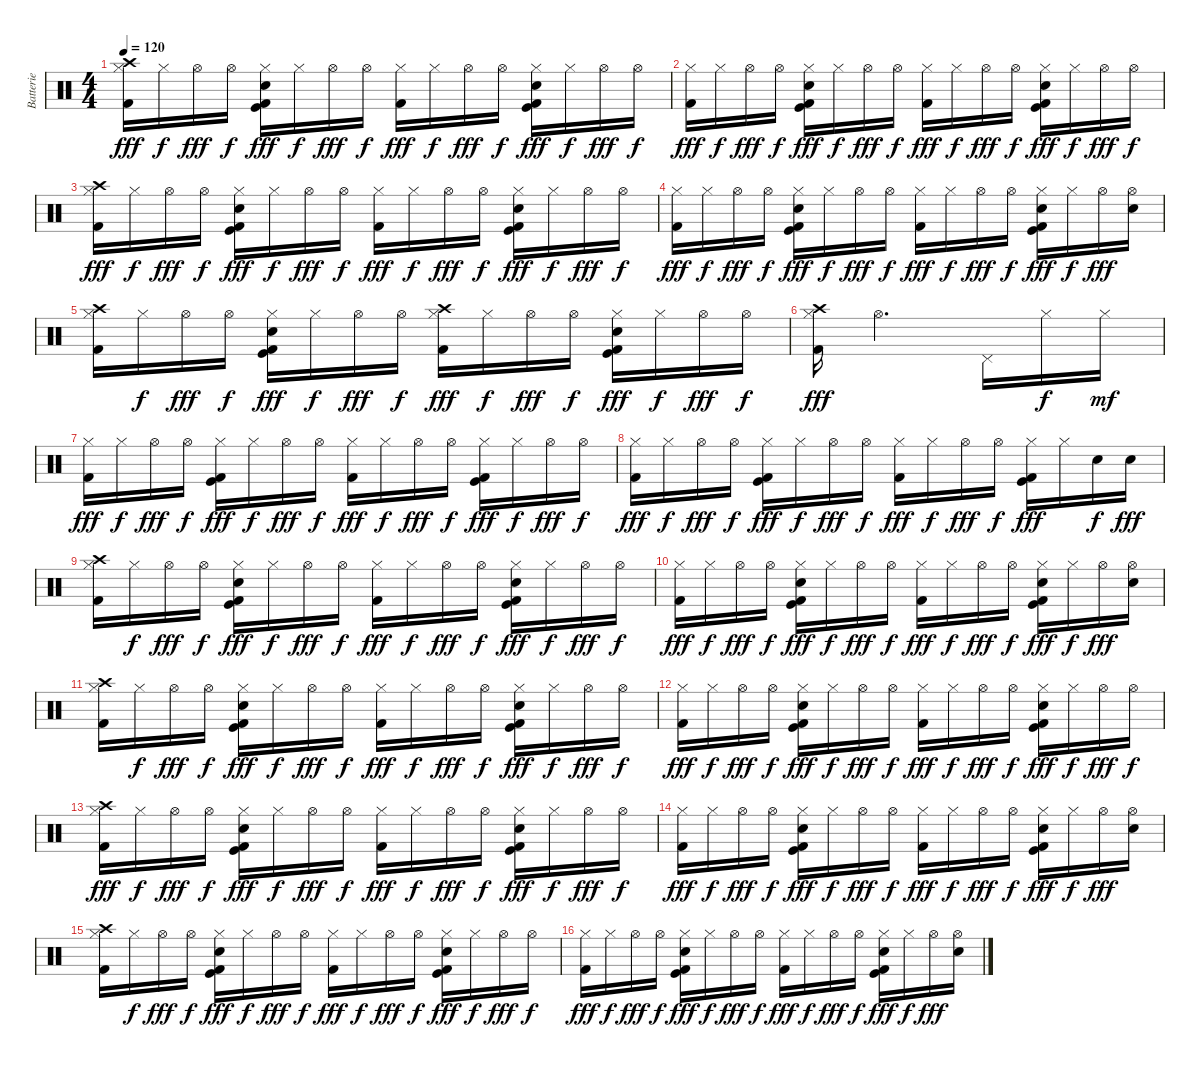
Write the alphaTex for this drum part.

\track ("Batterie" "Batterie") {instrument percussion}
\staff {score}
\articulation defaults
\ts (4 4)
\tempo 120
\clef neutral
\ks c
("Hi-Hat (closed)" "Crash high (hit)" "Kick (hit) 2").16{dy fff} "Hi-Hat (closed)".16{dy f} "Hi-Hat (open)".16{dy fff} "Hi-Hat (open)".16{dy f} ("Hi-Hat (closed)" "Electric Snare (hit)" "Kick (hit)" "Kick (hit) 2").16{dy fff} "Hi-Hat (closed)".16{dy f} "Hi-Hat (open)".16{dy fff} "Hi-Hat (open)".16{dy f} ("Hi-Hat (closed)" "Kick (hit) 2").16{dy fff} "Hi-Hat (closed)".16{dy f} "Hi-Hat (open)".16{dy fff} "Hi-Hat (open)".16{dy f} ("Hi-Hat (closed)" "Electric Snare (hit)" "Kick (hit)" "Kick (hit) 2").16{dy fff} "Hi-Hat (closed)".16{dy f} "Hi-Hat (open)".16{dy fff} "Hi-Hat (open)".16{dy f} |
("Hi-Hat (closed)" "Kick (hit) 2").16{dy fff} "Hi-Hat (closed)".16{dy f} "Hi-Hat (open)".16{dy fff} "Hi-Hat (open)".16{dy f} ("Hi-Hat (closed)" "Electric Snare (hit)" "Kick (hit) 2" "Kick (hit)").16{dy fff} "Hi-Hat (closed)".16{dy f} "Hi-Hat (open)".16{dy fff} "Hi-Hat (open)".16{dy f} ("Hi-Hat (closed)" "Kick (hit) 2").16{dy fff} "Hi-Hat (closed)".16{dy f} "Hi-Hat (open)".16{dy fff} "Hi-Hat (open)".16{dy f} ("Hi-Hat (closed)" "Electric Snare (hit)" "Kick (hit)" "Kick (hit) 2").16{dy fff} "Hi-Hat (closed)".16{dy f} "Hi-Hat (open)".16{dy fff} "Hi-Hat (open)".16{dy f} |
("Hi-Hat (closed)" "Crash high (hit)" "Kick (hit) 2").16{dy fff} "Hi-Hat (closed)".16{dy f} "Hi-Hat (open)".16{dy fff} "Hi-Hat (open)".16{dy f} ("Hi-Hat (closed)" "Electric Snare (hit)" "Kick (hit)" "Kick (hit) 2").16{dy fff} "Hi-Hat (closed)".16{dy f} "Hi-Hat (open)".16{dy fff} "Hi-Hat (open)".16{dy f} ("Hi-Hat (closed)" "Kick (hit) 2").16{dy fff} "Hi-Hat (closed)".16{dy f} "Hi-Hat (open)".16{dy fff} "Hi-Hat (open)".16{dy f} ("Hi-Hat (closed)" "Electric Snare (hit)" "Kick (hit)" "Kick (hit) 2").16{dy fff} "Hi-Hat (closed)".16{dy f} "Hi-Hat (open)".16{dy fff} "Hi-Hat (open)".16{dy f} |
("Hi-Hat (closed)" "Kick (hit) 2").16{dy fff} "Hi-Hat (closed)".16{dy f} "Hi-Hat (open)".16{dy fff} "Hi-Hat (open)".16{dy f} ("Hi-Hat (closed)" "Electric Snare (hit)" "Kick (hit) 2" "Kick (hit)").16{dy fff} "Hi-Hat (closed)".16{dy f} "Hi-Hat (open)".16{dy fff} "Hi-Hat (open)".16{dy f} ("Hi-Hat (closed)" "Kick (hit) 2").16{dy fff} "Hi-Hat (closed)".16{dy f} "Hi-Hat (open)".16{dy fff} "Hi-Hat (open)".16{dy f} ("Hi-Hat (closed)" "Electric Snare (hit)" "Kick (hit)" "Kick (hit) 2").16{dy fff} "Hi-Hat (closed)".16{dy f} "Hi-Hat (open)".16{dy fff} ("Hi-Hat (open)" "Electric Snare (hit)").16 |
("Hi-Hat (closed)" "Crash high (hit)" "Kick (hit) 2").16 "Hi-Hat (closed)".16{dy f} "Hi-Hat (open)".16{dy fff} "Hi-Hat (open)".16{dy f} ("Hi-Hat (closed)" "Electric Snare (hit)" "Kick (hit)" "Kick (hit) 2").16{dy fff} "Hi-Hat (closed)".16{dy f} "Hi-Hat (open)".16{dy fff} "Hi-Hat (open)".16{dy f} ("Hi-Hat (closed)" "Crash high (hit)" "Kick (hit) 2").16{dy fff} "Hi-Hat (closed)".16{dy f} "Hi-Hat (open)".16{dy fff} "Hi-Hat (open)".16{dy f} ("Hi-Hat (closed)" "Electric Snare (hit)" "Kick (hit)" "Kick (hit) 2").16{dy fff} "Hi-Hat (closed)".16{dy f} "Hi-Hat (open)".16{dy fff} "Hi-Hat (open)".16{dy f} |
("Hi-Hat (closed)" "Crash high (hit)" "Kick (hit) 2").16{dy fff} "Hi-Hat (open)".2{d} "Pedal Hi-Hat (hit)".16 "Hi-Hat (closed)".16{dy f} "Hi-Hat (closed)".16{dy mf} |
("Hi-Hat (closed)" "Kick (hit) 2").16{dy fff} "Hi-Hat (closed)".16{dy f} "Hi-Hat (open)".16{dy fff} "Hi-Hat (open)".16{dy f} ("Hi-Hat (closed)" "Kick (hit)" "Kick (hit) 2").16{dy fff} "Hi-Hat (closed)".16{dy f} "Hi-Hat (open)".16{dy fff} "Hi-Hat (open)".16{dy f} ("Hi-Hat (closed)" "Kick (hit) 2").16{dy fff} "Hi-Hat (closed)".16{dy f} "Hi-Hat (open)".16{dy fff} "Hi-Hat (open)".16{dy f} ("Hi-Hat (closed)" "Kick (hit)" "Kick (hit) 2").16{dy fff} "Hi-Hat (closed)".16{dy f} "Hi-Hat (open)".16{dy fff} "Hi-Hat (open)".16{dy f} |
("Hi-Hat (closed)" "Kick (hit) 2").16{dy fff} "Hi-Hat (closed)".16{dy f} "Hi-Hat (open)".16{dy fff} "Hi-Hat (open)".16{dy f} ("Hi-Hat (closed)" "Kick (hit)" "Kick (hit) 2").16{dy fff} "Hi-Hat (closed)".16{dy f} "Hi-Hat (open)".16{dy fff} "Hi-Hat (open)".16{dy f} ("Hi-Hat (closed)" "Kick (hit) 2").16{dy fff} "Hi-Hat (closed)".16{dy f} "Hi-Hat (open)".16{dy fff} "Hi-Hat (open)".16{dy f} ("Hi-Hat (closed)" "Kick (hit)" "Kick (hit) 2").16{dy fff} "Hi-Hat (closed)".16 "Electric Snare (hit)".16{dy f} "Electric Snare (hit)".16{dy fff} |
("Hi-Hat (closed)" "Crash high (hit)" "Kick (hit) 2").16 "Hi-Hat (closed)".16{dy f} "Hi-Hat (open)".16{dy fff} "Hi-Hat (open)".16{dy f} ("Hi-Hat (closed)" "Electric Snare (hit)" "Kick (hit)" "Kick (hit) 2").16{dy fff} "Hi-Hat (closed)".16{dy f} "Hi-Hat (open)".16{dy fff} "Hi-Hat (open)".16{dy f} ("Hi-Hat (closed)" "Kick (hit) 2").16{dy fff} "Hi-Hat (closed)".16{dy f} "Hi-Hat (open)".16{dy fff} "Hi-Hat (open)".16{dy f} ("Hi-Hat (closed)" "Electric Snare (hit)" "Kick (hit)" "Kick (hit) 2").16{dy fff} "Hi-Hat (closed)".16{dy f} "Hi-Hat (open)".16{dy fff} "Hi-Hat (open)".16{dy f} |
("Hi-Hat (closed)" "Kick (hit) 2").16{dy fff} "Hi-Hat (closed)".16{dy f} "Hi-Hat (open)".16{dy fff} "Hi-Hat (open)".16{dy f} ("Hi-Hat (closed)" "Electric Snare (hit)" "Kick (hit) 2" "Kick (hit)").16{dy fff} "Hi-Hat (closed)".16{dy f} "Hi-Hat (open)".16{dy fff} "Hi-Hat (open)".16{dy f} ("Hi-Hat (closed)" "Kick (hit) 2").16{dy fff} "Hi-Hat (closed)".16{dy f} "Hi-Hat (open)".16{dy fff} "Hi-Hat (open)".16{dy f} ("Hi-Hat (closed)" "Electric Snare (hit)" "Kick (hit)" "Kick (hit) 2").16{dy fff} "Hi-Hat (closed)".16{dy f} "Hi-Hat (open)".16{dy fff} ("Hi-Hat (open)" "Electric Snare (hit)").16 |
("Hi-Hat (closed)" "Crash high (hit)" "Kick (hit) 2").16 "Hi-Hat (closed)".16{dy f} "Hi-Hat (open)".16{dy fff} "Hi-Hat (open)".16{dy f} ("Hi-Hat (closed)" "Electric Snare (hit)" "Kick (hit)" "Kick (hit) 2").16{dy fff} "Hi-Hat (closed)".16{dy f} "Hi-Hat (open)".16{dy fff} "Hi-Hat (open)".16{dy f} ("Hi-Hat (closed)" "Kick (hit) 2").16{dy fff} "Hi-Hat (closed)".16{dy f} "Hi-Hat (open)".16{dy fff} "Hi-Hat (open)".16{dy f} ("Hi-Hat (closed)" "Electric Snare (hit)" "Kick (hit)" "Kick (hit) 2").16{dy fff} "Hi-Hat (closed)".16{dy f} "Hi-Hat (open)".16{dy fff} "Hi-Hat (open)".16{dy f} |
("Hi-Hat (closed)" "Kick (hit) 2").16{dy fff} "Hi-Hat (closed)".16{dy f} "Hi-Hat (open)".16{dy fff} "Hi-Hat (open)".16{dy f} ("Hi-Hat (closed)" "Electric Snare (hit)" "Kick (hit)" "Kick (hit) 2").16{dy fff} "Hi-Hat (closed)".16{dy f} "Hi-Hat (open)".16{dy fff} "Hi-Hat (open)".16{dy f} ("Hi-Hat (closed)" "Kick (hit) 2").16{dy fff} "Hi-Hat (closed)".16{dy f} "Hi-Hat (open)".16{dy fff} "Hi-Hat (open)".16{dy f} ("Hi-Hat (closed)" "Electric Snare (hit)" "Kick (hit)" "Kick (hit) 2").16{dy fff} "Hi-Hat (closed)".16{dy f} "Hi-Hat (open)".16{dy fff} "Hi-Hat (open)".16{dy f} |
("Hi-Hat (closed)" "Crash high (hit)" "Kick (hit) 2").16{dy fff} "Hi-Hat (closed)".16{dy f} "Hi-Hat (open)".16{dy fff} "Hi-Hat (open)".16{dy f} ("Hi-Hat (closed)" "Electric Snare (hit)" "Kick (hit) 2" "Kick (hit)").16{dy fff} "Hi-Hat (closed)".16{dy f} "Hi-Hat (open)".16{dy fff} "Hi-Hat (open)".16{dy f} ("Hi-Hat (closed)" "Kick (hit) 2").16{dy fff} "Hi-Hat (closed)".16{dy f} "Hi-Hat (open)".16{dy fff} "Hi-Hat (open)".16{dy f} ("Hi-Hat (closed)" "Electric Snare (hit)" "Kick (hit)" "Kick (hit) 2").16{dy fff} "Hi-Hat (closed)".16{dy f} "Hi-Hat (open)".16{dy fff} "Hi-Hat (open)".16{dy f} |
("Hi-Hat (closed)" "Kick (hit) 2").16{dy fff} "Hi-Hat (closed)".16{dy f} "Hi-Hat (open)".16{dy fff} "Hi-Hat (open)".16{dy f} ("Hi-Hat (closed)" "Electric Snare (hit)" "Kick (hit) 2" "Kick (hit)").16{dy fff} "Hi-Hat (closed)".16{dy f} "Hi-Hat (open)".16{dy fff} "Hi-Hat (open)".16{dy f} ("Hi-Hat (closed)" "Kick (hit) 2").16{dy fff} "Hi-Hat (closed)".16{dy f} "Hi-Hat (open)".16{dy fff} "Hi-Hat (open)".16{dy f} ("Hi-Hat (closed)" "Electric Snare (hit)" "Kick (hit)" "Kick (hit) 2").16{dy fff} "Hi-Hat (closed)".16{dy f} "Hi-Hat (open)".16{dy fff} ("Hi-Hat (open)" "Electric Snare (hit)").16 |
("Hi-Hat (closed)" "Crash high (hit)" "Kick (hit) 2").16 "Hi-Hat (closed)".16{dy f} "Hi-Hat (open)".16{dy fff} "Hi-Hat (open)".16{dy f} ("Hi-Hat (closed)" "Electric Snare (hit)" "Kick (hit) 2" "Kick (hit)").16{dy fff} "Hi-Hat (closed)".16{dy f} "Hi-Hat (open)".16{dy fff} "Hi-Hat (open)".16{dy f} ("Hi-Hat (closed)" "Kick (hit) 2").16{dy fff} "Hi-Hat (closed)".16{dy f} "Hi-Hat (open)".16{dy fff} "Hi-Hat (open)".16{dy f} ("Hi-Hat (closed)" "Electric Snare (hit)" "Kick (hit)" "Kick (hit) 2").16{dy fff} "Hi-Hat (closed)".16{dy f} "Hi-Hat (open)".16{dy fff} "Hi-Hat (open)".16{dy f} |
("Hi-Hat (closed)" "Kick (hit) 2").16{dy fff} "Hi-Hat (closed)".16{dy f} "Hi-Hat (open)".16{dy fff} "Hi-Hat (open)".16{dy f} ("Hi-Hat (closed)" "Electric Snare (hit)" "Kick (hit) 2" "Kick (hit)").16{dy fff} "Hi-Hat (closed)".16{dy f} "Hi-Hat (open)".16{dy fff} "Hi-Hat (open)".16{dy f} ("Hi-Hat (closed)" "Kick (hit) 2").16{dy fff} "Hi-Hat (closed)".16{dy f} "Hi-Hat (open)".16{dy fff} "Hi-Hat (open)".16{dy f} ("Hi-Hat (closed)" "Electric Snare (hit)" "Kick (hit)" "Kick (hit) 2").16{dy fff} "Hi-Hat (closed)".16{dy f} "Hi-Hat (open)".16{dy fff} ("Hi-Hat (open)" "Electric Snare (hit)").16
